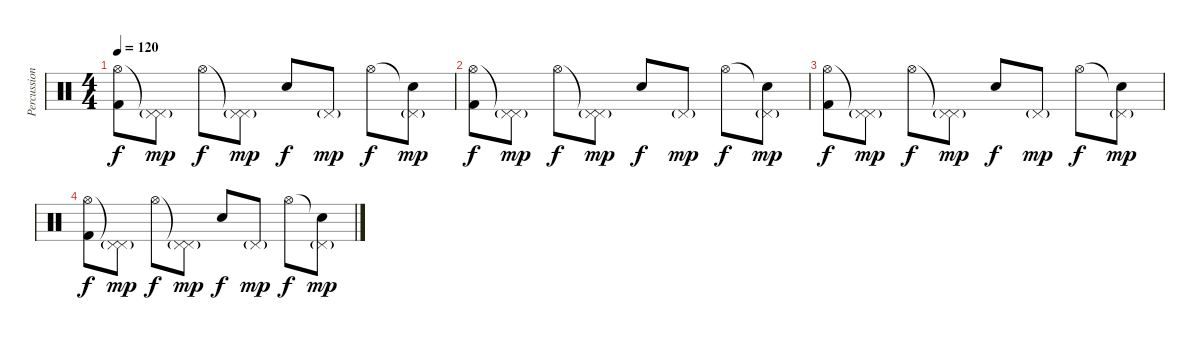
\track ("Percussion" "Percussion") {instrument percussion}
\staff {score}
\articulation defaults
\ts (4 4)
\tempo 120
\clef neutral
\ks c
("Hi-Hat (open)" "Kick (hit) 2").8{dy f volume 5} ("Pedal Hi-Hat (hit)"{t} "Pedal Hi-Hat (hit)"{g}).8{dy mp} "Hi-Hat (open)".8{dy f} ("Pedal Hi-Hat (hit)"{t} "Pedal Hi-Hat (hit)"{g}).8{dy mp} "Snare (hit) 2".8{dy f} "Pedal Hi-Hat (hit)"{g}.8{dy mp} "Hi-Hat (open)".8{dy f} ("Snare (hit)"{t} "Pedal Hi-Hat (hit)"{g}).8{dy mp} |
("Hi-Hat (open)" "Kick (hit) 2").8{dy f volume 4} ("Pedal Hi-Hat (hit)"{t} "Pedal Hi-Hat (hit)"{g}).8{dy mp} "Hi-Hat (open)".8{dy f} ("Pedal Hi-Hat (hit)"{t} "Pedal Hi-Hat (hit)"{g}).8{dy mp} "Snare (hit) 2".8{dy f} "Pedal Hi-Hat (hit)"{g}.8{dy mp} "Hi-Hat (open)".8{dy f} ("Snare (hit)"{t} "Pedal Hi-Hat (hit)"{g}).8{dy mp} |
("Hi-Hat (open)" "Kick (hit) 2").8{dy f volume 3} ("Pedal Hi-Hat (hit)"{t} "Pedal Hi-Hat (hit)"{g}).8{dy mp} "Hi-Hat (open)".8{dy f} ("Pedal Hi-Hat (hit)"{t} "Pedal Hi-Hat (hit)"{g}).8{dy mp} "Snare (hit) 2".8{dy f} "Pedal Hi-Hat (hit)"{g}.8{dy mp} "Hi-Hat (open)".8{dy f} ("Snare (hit)"{t} "Pedal Hi-Hat (hit)"{g}).8{dy mp} |
("Hi-Hat (open)" "Kick (hit) 2").8{dy f volume 2} ("Pedal Hi-Hat (hit)"{t} "Pedal Hi-Hat (hit)"{g}).8{dy mp} "Hi-Hat (open)".8{dy f} ("Pedal Hi-Hat (hit)"{t} "Pedal Hi-Hat (hit)"{g}).8{dy mp} "Snare (hit) 2".8{dy f} "Pedal Hi-Hat (hit)"{g}.8{dy mp} "Hi-Hat (open)".8{dy f} ("Snare (hit)"{t} "Pedal Hi-Hat (hit)"{g}).8{dy mp}
